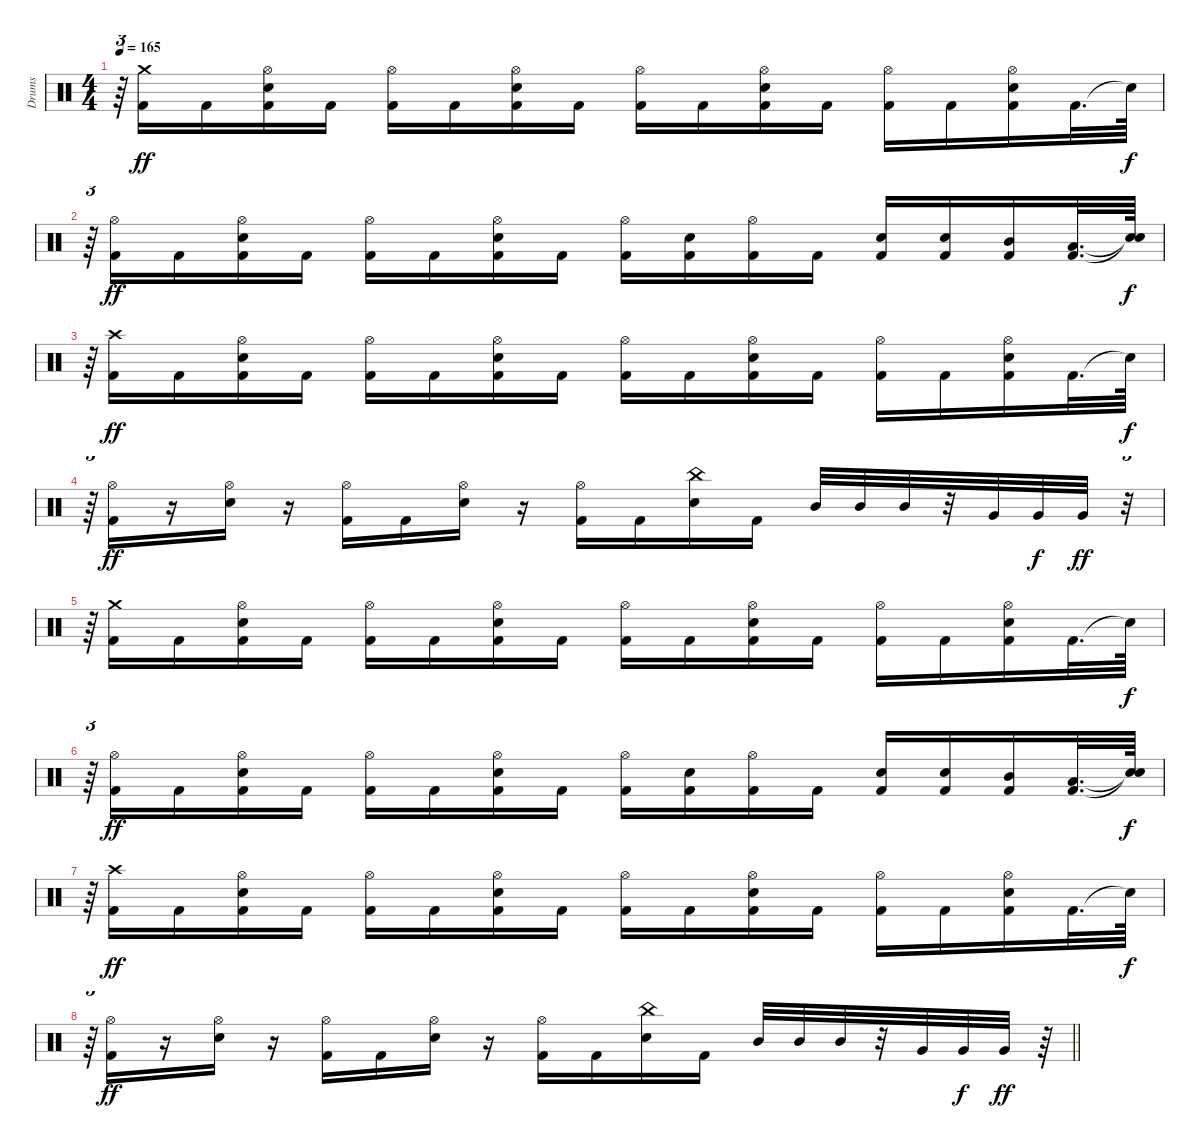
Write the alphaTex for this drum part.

\track ("Drums" "Drums") {instrument percussion}
\staff {score}
\articulation defaults
\ts (4 4)
\tempo 165
\clef neutral
\ks c
r.64{tu (3 2) dy ff} ("Kick (hit) 2" "Crash medium (hit)").16 "Kick (hit) 2".16 ("Kick (hit) 2" "Snare (hit) 2" "Hi-Hat (open)").16 "Kick (hit) 2".16 ("Kick (hit) 2" "Hi-Hat (open)").16 "Kick (hit) 2".16 ("Kick (hit) 2" "Snare (hit) 2" "Hi-Hat (open)").16 "Kick (hit) 2".16 ("Kick (hit) 2" "Hi-Hat (open)").16 "Kick (hit) 2".16 ("Kick (hit) 2" "Snare (hit) 2" "Hi-Hat (open)").16 "Kick (hit) 2".16 ("Kick (hit) 2" "Hi-Hat (open)").16 "Kick (hit) 2".16 ("Kick (hit) 2" "Snare (hit) 2" "Hi-Hat (open)").16 "Kick (hit) 2".32{d} "Snare (hit)"{t}.64{dy f} |
r.64{tu (3 2)} ("Kick (hit) 2" "Hi-Hat (open)").16{dy ff} "Kick (hit) 2".16 ("Kick (hit) 2" "Snare (hit) 2" "Hi-Hat (open)").16 "Kick (hit) 2".16 ("Kick (hit) 2" "Hi-Hat (open)").16 "Kick (hit) 2".16 ("Kick (hit) 2" "Snare (hit) 2" "Hi-Hat (open)").16 "Kick (hit) 2".16 ("Kick (hit) 2" "Hi-Hat (open)").16 ("Kick (hit) 2" "Snare (hit) 2").16 ("Kick (hit) 2" "Hi-Hat (open)").16 "Kick (hit) 2".16 ("Kick (hit) 2" "Snare (hit) 2").16 ("Kick (hit) 2" "Snare (hit) 2").16 ("Kick (hit) 2" "Mid Tom (hit)").16 ("Kick (hit) 2" "Low Tom (hit)").32{d} ("Snare (hit)"{t} "Snare (hit)"{t}).64{dy f} |
r.64{tu (3 2)} ("Kick (hit) 2" "Crash high (hit)").16{dy ff} "Kick (hit) 2".16 ("Kick (hit) 2" "Snare (hit) 2" "Hi-Hat (open)").16 "Kick (hit) 2".16 ("Kick (hit) 2" "Hi-Hat (open)").16 "Kick (hit) 2".16 ("Kick (hit) 2" "Snare (hit) 2" "Hi-Hat (open)").16 "Kick (hit) 2".16 ("Kick (hit) 2" "Hi-Hat (open)").16 "Kick (hit) 2".16 ("Kick (hit) 2" "Snare (hit) 2" "Hi-Hat (open)").16 "Kick (hit) 2".16 ("Kick (hit) 2" "Hi-Hat (open)").16 "Kick (hit) 2".16 ("Kick (hit) 2" "Snare (hit) 2" "Hi-Hat (open)").16 "Kick (hit) 2".32{d} "Snare (hit)"{t}.64{dy f} |
r.64{tu (3 2)} ("Kick (hit) 2" "Hi-Hat (open)").16{dy ff} r.16 ("Snare (hit) 2" "Hi-Hat (open)").16 r.16 ("Kick (hit) 2" "Hi-Hat (open)").16 "Kick (hit) 2".16 ("Snare (hit) 2" "Hi-Hat (open)").16 r.16 ("Kick (hit) 2" "Hi-Hat (open)").16 "Kick (hit) 2".16 ("Snare (hit) 2" "China (hit)").16 "Kick (hit) 2".16 "Mid Tom (hit)".32 "Mid Tom (hit)".32 "Mid Tom (hit)".32 r.32 "Very Low Tom (hit)".32 "Very Low Tom (hit)".32{dy f} "Very Low Tom (hit)".32{dy ff} r.32{tu (3 2)} |
r.64{tu (3 2)} ("Kick (hit) 2" "Crash medium (hit)").16 "Kick (hit) 2".16 ("Kick (hit) 2" "Snare (hit) 2" "Hi-Hat (open)").16 "Kick (hit) 2".16 ("Kick (hit) 2" "Hi-Hat (open)").16 "Kick (hit) 2".16 ("Kick (hit) 2" "Snare (hit) 2" "Hi-Hat (open)").16 "Kick (hit) 2".16 ("Kick (hit) 2" "Hi-Hat (open)").16 "Kick (hit) 2".16 ("Kick (hit) 2" "Snare (hit) 2" "Hi-Hat (open)").16 "Kick (hit) 2".16 ("Kick (hit) 2" "Hi-Hat (open)").16 "Kick (hit) 2".16 ("Kick (hit) 2" "Snare (hit) 2" "Hi-Hat (open)").16 "Kick (hit) 2".32{d} "Snare (hit)"{t}.64{dy f} |
r.64{tu (3 2)} ("Kick (hit) 2" "Hi-Hat (open)").16{dy ff} "Kick (hit) 2".16 ("Kick (hit) 2" "Snare (hit) 2" "Hi-Hat (open)").16 "Kick (hit) 2".16 ("Kick (hit) 2" "Hi-Hat (open)").16 "Kick (hit) 2".16 ("Kick (hit) 2" "Snare (hit) 2" "Hi-Hat (open)").16 "Kick (hit) 2".16 ("Kick (hit) 2" "Hi-Hat (open)").16 ("Kick (hit) 2" "Snare (hit) 2").16 ("Kick (hit) 2" "Hi-Hat (open)").16 "Kick (hit) 2".16 ("Kick (hit) 2" "Snare (hit) 2").16 ("Kick (hit) 2" "Snare (hit) 2").16 ("Kick (hit) 2" "Mid Tom (hit)").16 ("Kick (hit) 2" "Low Tom (hit)").32{d} ("Snare (hit)"{t} "Snare (hit)"{t}).64{dy f} |
r.64{tu (3 2)} ("Kick (hit) 2" "Crash high (hit)").16{dy ff} "Kick (hit) 2".16 ("Kick (hit) 2" "Snare (hit) 2" "Hi-Hat (open)").16 "Kick (hit) 2".16 ("Kick (hit) 2" "Hi-Hat (open)").16 "Kick (hit) 2".16 ("Kick (hit) 2" "Snare (hit) 2" "Hi-Hat (open)").16 "Kick (hit) 2".16 ("Kick (hit) 2" "Hi-Hat (open)").16 "Kick (hit) 2".16 ("Kick (hit) 2" "Snare (hit) 2" "Hi-Hat (open)").16 "Kick (hit) 2".16 ("Kick (hit) 2" "Hi-Hat (open)").16 "Kick (hit) 2".16 ("Kick (hit) 2" "Snare (hit) 2" "Hi-Hat (open)").16 "Kick (hit) 2".32{d} "Snare (hit)"{t}.64{dy f} |
\barLineRight lightlight
r.64{tu (3 2)} ("Kick (hit) 2" "Hi-Hat (open)").16{dy ff} r.16 ("Snare (hit) 2" "Hi-Hat (open)").16 r.16 ("Kick (hit) 2" "Hi-Hat (open)").16 "Kick (hit) 2".16 ("Snare (hit) 2" "Hi-Hat (open)").16 r.16 ("Kick (hit) 2" "Hi-Hat (open)").16 "Kick (hit) 2".16 ("Snare (hit) 2" "China (hit)").16 "Kick (hit) 2".16 "Mid Tom (hit)".32 "Mid Tom (hit)".32 "Mid Tom (hit)".32 r.32 "Very Low Tom (hit)".32 "Very Low Tom (hit)".32{dy f} "Very Low Tom (hit)".32{dy ff} r.64
